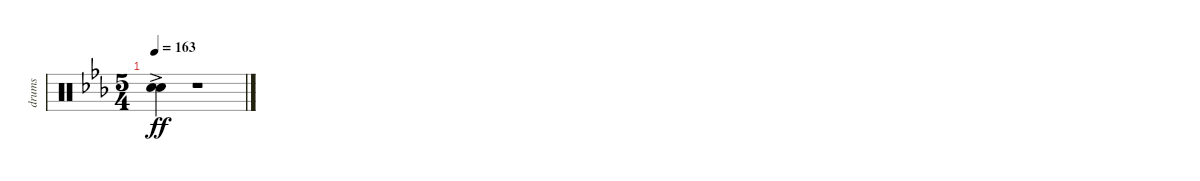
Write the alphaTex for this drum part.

\track ("drums" "drums") {instrument percussion}
\staff {score}
\articulation defaults
\ts (5 4)
\tempo 163
\clef neutral
\ks cminor
("Electric Snare (hit)"{ac} "Snare (hit) 2"{ac}).4{dy ff} r.1
